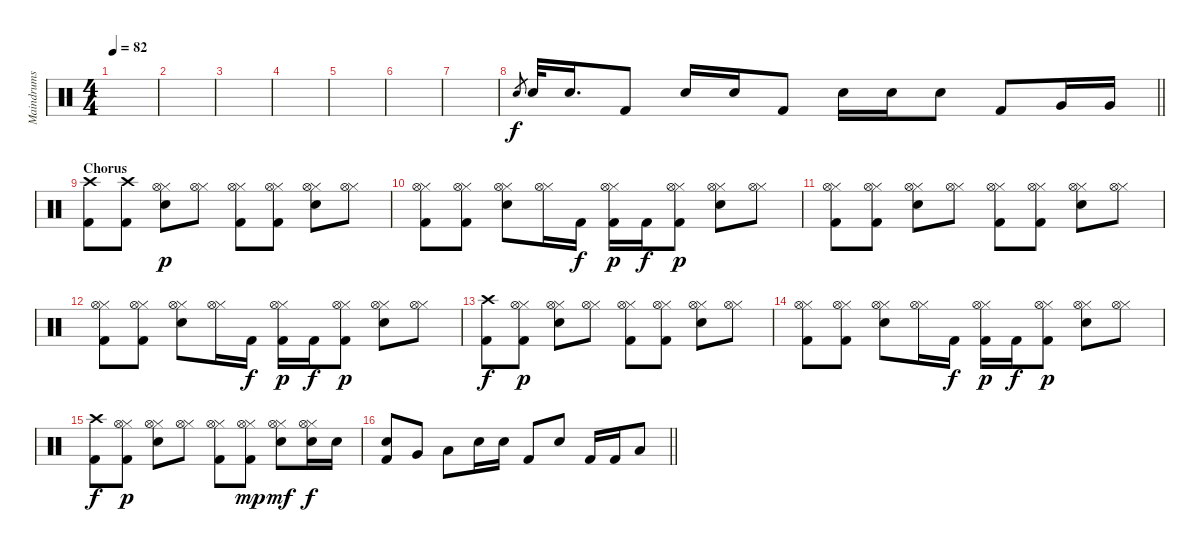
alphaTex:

\track ("Maindrums" "Maindrums") {instrument percussion}
\staff {score}
\articulation defaults
\ts (4 4)
\tempo 82
\clef neutral
\ks c
|
|
|
|
|
|
|
\barLineRight lightlight "Snare (hit) 2".8{gr} "Snare (hit) 2".32{volume 13} "Snare (hit) 2".16{d} "Kick (hit) 2".8 "Snare (hit) 2".16 "Snare (hit) 2".16 "Kick (hit) 2".8 "Snare (hit) 2".16 "Snare (hit) 2".16 "Snare (hit) 2".8 "Kick (hit) 2".8 "Very Low Tom (hit)".16 "Very Low Tom (hit)".16
|
\section ("" "Chorus")
("Crash high (hit)" "Kick (hit) 2").8 ("Crash high (hit)" "Kick (hit) 2").8 ("Hi-Hat (closed)" "Hi-Hat (open)" "Snare (hit) 2").8{dy p} ("Hi-Hat (closed)" "Hi-Hat (open)").8 ("Hi-Hat (closed)" "Hi-Hat (open)" "Kick (hit) 2").8 ("Hi-Hat (closed)" "Hi-Hat (open)" "Kick (hit) 2").8 ("Hi-Hat (closed)" "Hi-Hat (open)" "Snare (hit) 2").8 ("Hi-Hat (closed)" "Hi-Hat (open)").8 |
("Hi-Hat (closed)" "Hi-Hat (open)" "Kick (hit) 2").8 ("Hi-Hat (closed)" "Hi-Hat (open)" "Kick (hit) 2").8 ("Hi-Hat (closed)" "Hi-Hat (open)" "Snare (hit) 2").8 ("Hi-Hat (closed)" "Hi-Hat (open)").16 "Kick (hit) 2".16{dy f} ("Hi-Hat (closed)" "Hi-Hat (open)" "Kick (hit) 2").16{dy p} "Kick (hit) 2".16{dy f} ("Hi-Hat (closed)" "Hi-Hat (open)" "Kick (hit) 2").8{dy p} ("Hi-Hat (closed)" "Hi-Hat (open)" "Snare (hit) 2").8 ("Hi-Hat (closed)" "Hi-Hat (open)").8 |
("Hi-Hat (closed)" "Hi-Hat (open)" "Kick (hit) 2").8 ("Hi-Hat (closed)" "Hi-Hat (open)" "Kick (hit) 2").8 ("Hi-Hat (closed)" "Hi-Hat (open)" "Snare (hit) 2").8 ("Hi-Hat (closed)" "Hi-Hat (open)").8 ("Hi-Hat (closed)" "Hi-Hat (open)" "Kick (hit) 2").8 ("Hi-Hat (closed)" "Hi-Hat (open)" "Kick (hit) 2").8 ("Hi-Hat (closed)" "Hi-Hat (open)" "Snare (hit) 2").8 ("Hi-Hat (closed)" "Hi-Hat (open)").8 |
("Hi-Hat (closed)" "Hi-Hat (open)" "Kick (hit) 2").8 ("Hi-Hat (closed)" "Hi-Hat (open)" "Kick (hit) 2").8 ("Hi-Hat (closed)" "Hi-Hat (open)" "Snare (hit) 2").8 ("Hi-Hat (closed)" "Hi-Hat (open)").16 "Kick (hit) 2".16{dy f} ("Hi-Hat (closed)" "Hi-Hat (open)" "Kick (hit) 2").16{dy p} "Kick (hit) 2".16{dy f} ("Hi-Hat (closed)" "Hi-Hat (open)" "Kick (hit) 2").8{dy p} ("Hi-Hat (closed)" "Hi-Hat (open)" "Snare (hit) 2").8 ("Hi-Hat (closed)" "Hi-Hat (open)").8 |
("Crash high (hit)" "Kick (hit) 2").8{dy f} ("Hi-Hat (closed)" "Hi-Hat (open)" "Kick (hit) 2").8{dy p} ("Hi-Hat (closed)" "Hi-Hat (open)" "Snare (hit) 2").8 ("Hi-Hat (closed)" "Hi-Hat (open)").8 ("Hi-Hat (closed)" "Hi-Hat (open)" "Kick (hit) 2").8 ("Hi-Hat (closed)" "Hi-Hat (open)" "Kick (hit) 2").8 ("Hi-Hat (closed)" "Hi-Hat (open)" "Snare (hit) 2").8 ("Hi-Hat (closed)" "Hi-Hat (open)").8 |
("Hi-Hat (closed)" "Hi-Hat (open)" "Kick (hit) 2").8 ("Hi-Hat (closed)" "Hi-Hat (open)" "Kick (hit) 2").8 ("Hi-Hat (closed)" "Hi-Hat (open)" "Snare (hit) 2").8 ("Hi-Hat (closed)" "Hi-Hat (open)").16 "Kick (hit) 2".16{dy f} ("Hi-Hat (closed)" "Hi-Hat (open)" "Kick (hit) 2").16{dy p} "Kick (hit) 2".16{dy f} ("Hi-Hat (closed)" "Hi-Hat (open)" "Kick (hit) 2").8{dy p} ("Hi-Hat (closed)" "Hi-Hat (open)" "Snare (hit) 2").8 ("Hi-Hat (closed)" "Hi-Hat (open)").8 |
("Crash high (hit)" "Kick (hit) 2").8{dy f} ("Hi-Hat (closed)" "Hi-Hat (open)" "Kick (hit) 2").8{dy p} ("Hi-Hat (closed)" "Hi-Hat (open)" "Snare (hit) 2").8 ("Hi-Hat (closed)" "Hi-Hat (open)").8 ("Hi-Hat (closed)" "Hi-Hat (open)" "Kick (hit) 2").8 ("Hi-Hat (closed)" "Hi-Hat (open)" "Kick (hit) 2").8{dy mp} ("Hi-Hat (closed)" "Hi-Hat (open)" "Snare (hit) 2").8{dy mf} ("Hi-Hat (closed)" "Hi-Hat (open)" "Snare (hit) 2").16{dy f} "Snare (hit) 2".16 |
\barLineRight lightlight
("Snare (hit) 2" "Kick (hit) 2").8 "Very Low Tom (hit)".8 "Low Tom (hit)".8 "Snare (hit) 2".16 "Snare (hit) 2".16 "Kick (hit) 2".8 "Snare (hit) 2".8 "Kick (hit) 2".16 "Kick (hit) 2".16 "Low Tom (hit)".8
